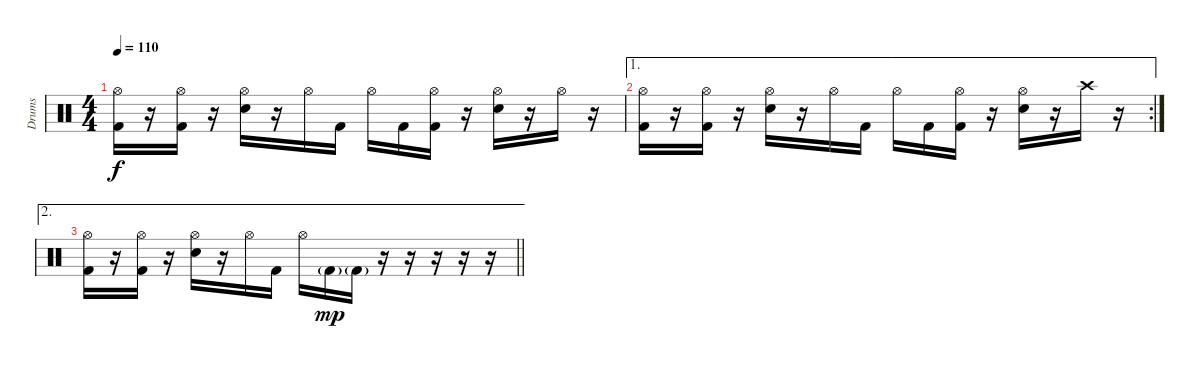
\track ("Drums" "Drums") {instrument percussion}
\staff {score}
\articulation defaults
\ts (4 4)
\tempo 110
\clef neutral
\ks c
("Hi-Hat (open)" "Kick (hit) 2").16{dy f} r.16 ("Hi-Hat (open)" "Kick (hit) 2").16 r.16 ("Hi-Hat (open)" "Electric Snare (hit)").16 r.16 "Hi-Hat (open)".16 "Kick (hit) 2".16 "Hi-Hat (open)".16 "Kick (hit) 2".16 ("Hi-Hat (open)" "Kick (hit) 2").16 r.16 ("Hi-Hat (open)" "Electric Snare (hit)").16 r.16 "Hi-Hat (open)".16 r.16 |
\ae 1
\rc 2
("Hi-Hat (open)" "Kick (hit) 2").16 r.16 ("Hi-Hat (open)" "Kick (hit) 2").16 r.16 ("Hi-Hat (open)" "Electric Snare (hit)").16 r.16 "Hi-Hat (open)".16 "Kick (hit) 2".16 "Hi-Hat (open)".16 "Kick (hit) 2".16 ("Hi-Hat (open)" "Kick (hit) 2").16 r.16 ("Hi-Hat (open)" "Electric Snare (hit)").16 r.16 "Crash high (hit)".16 r.16 |
\ae 2
\barLineRight lightlight
("Hi-Hat (open)" "Kick (hit) 2").16 r.16 ("Hi-Hat (open)" "Kick (hit) 2").16 r.16 ("Hi-Hat (open)" "Electric Snare (hit)").16 r.16 "Hi-Hat (open)".16 "Kick (hit) 2".16 "Hi-Hat (open)".16 "Kick (hit) 2"{g}.16{dy mp} "Kick (hit) 2"{g}.16 r.16 r.16 r.16 r.16 r.16
